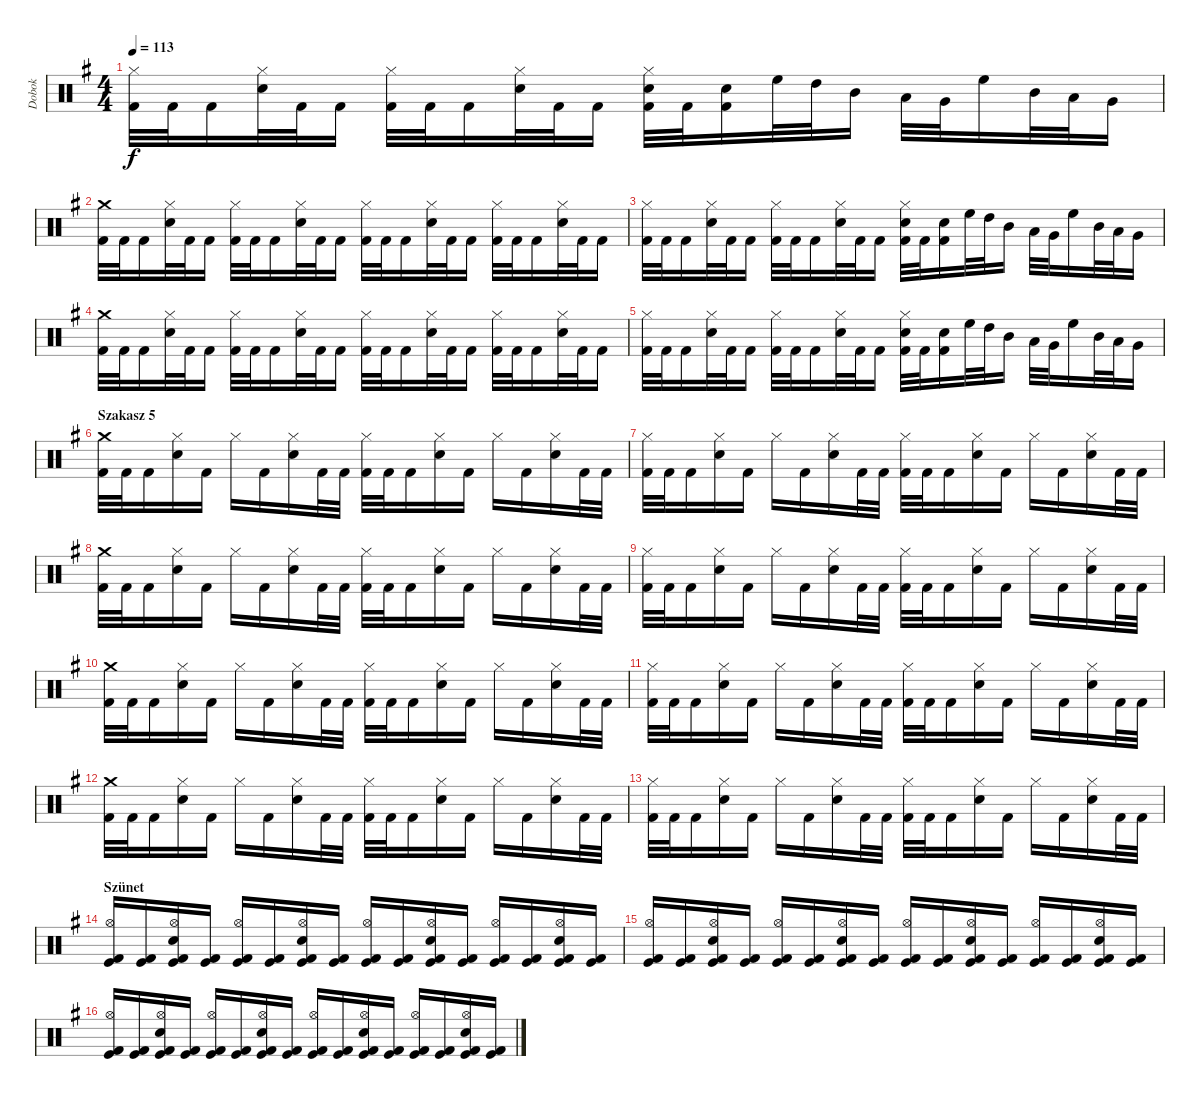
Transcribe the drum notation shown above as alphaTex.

\track ("Dobok" "Dobok") {instrument percussion}
\staff {score}
\articulation defaults
\ts (4 4)
\tempo 113
\clef neutral
\ks g
("Hi-Hat (closed)" "Kick (hit) 2").32{dy f} "Kick (hit) 2".32 "Kick (hit) 2".16 ("Hi-Hat (closed)" "Snare (hit) 2").32 "Kick (hit) 2".32 "Kick (hit) 2".16 ("Hi-Hat (closed)" "Kick (hit) 2").32 "Kick (hit) 2".32 "Kick (hit) 2".16 ("Hi-Hat (closed)" "Snare (hit) 2").32 "Kick (hit) 2".32 "Kick (hit) 2".16 ("Hi-Hat (closed)" "Snare (hit) 2" "Kick (hit) 2").32 "Kick (hit) 2".32 ("Snare (hit) 2" "Kick (hit) 2").16 "High Floor Tom (hit)".32 "High Tom (hit)".32 "Mid Tom (hit)".16 "Low Tom (hit)".32 "Very Low Tom (hit)".32 "High Floor Tom (hit)".16 "Mid Tom (hit)".32 "Low Tom (hit)".32 "Very Low Tom (hit)".16 |
("Crash medium (hit)" "Kick (hit) 2").32 "Kick (hit) 2".32 "Kick (hit) 2".16 ("Hi-Hat (closed)" "Snare (hit) 2").32 "Kick (hit) 2".32 "Kick (hit) 2".16 ("Hi-Hat (closed)" "Kick (hit) 2").32 "Kick (hit) 2".32 "Kick (hit) 2".16 ("Hi-Hat (closed)" "Snare (hit) 2").32 "Kick (hit) 2".32 "Kick (hit) 2".16 ("Hi-Hat (closed)" "Kick (hit) 2").32 "Kick (hit) 2".32 "Kick (hit) 2".16 ("Hi-Hat (closed)" "Snare (hit) 2").32 "Kick (hit) 2".32 "Kick (hit) 2".16 ("Hi-Hat (closed)" "Kick (hit) 2").32 "Kick (hit) 2".32 "Kick (hit) 2".16 ("Hi-Hat (closed)" "Snare (hit) 2").32 "Kick (hit) 2".32 "Kick (hit) 2".16 |
("Hi-Hat (closed)" "Kick (hit) 2").32 "Kick (hit) 2".32 "Kick (hit) 2".16 ("Hi-Hat (closed)" "Snare (hit) 2").32 "Kick (hit) 2".32 "Kick (hit) 2".16 ("Hi-Hat (closed)" "Kick (hit) 2").32 "Kick (hit) 2".32 "Kick (hit) 2".16 ("Hi-Hat (closed)" "Snare (hit) 2").32 "Kick (hit) 2".32 "Kick (hit) 2".16 ("Hi-Hat (closed)" "Snare (hit) 2" "Kick (hit) 2").32 "Kick (hit) 2".32 ("Snare (hit) 2" "Kick (hit) 2").16 "High Floor Tom (hit)".32 "High Tom (hit)".32 "Mid Tom (hit)".16 "Low Tom (hit)".32 "Very Low Tom (hit)".32 "High Floor Tom (hit)".16 "Mid Tom (hit)".32 "Low Tom (hit)".32 "Very Low Tom (hit)".16 |
("Crash medium (hit)" "Kick (hit) 2").32 "Kick (hit) 2".32 "Kick (hit) 2".16 ("Hi-Hat (closed)" "Snare (hit) 2").32 "Kick (hit) 2".32 "Kick (hit) 2".16 ("Hi-Hat (closed)" "Kick (hit) 2").32 "Kick (hit) 2".32 "Kick (hit) 2".16 ("Hi-Hat (closed)" "Snare (hit) 2").32 "Kick (hit) 2".32 "Kick (hit) 2".16 ("Hi-Hat (closed)" "Kick (hit) 2").32 "Kick (hit) 2".32 "Kick (hit) 2".16 ("Hi-Hat (closed)" "Snare (hit) 2").32 "Kick (hit) 2".32 "Kick (hit) 2".16 ("Hi-Hat (closed)" "Kick (hit) 2").32 "Kick (hit) 2".32 "Kick (hit) 2".16 ("Hi-Hat (closed)" "Snare (hit) 2").32 "Kick (hit) 2".32 "Kick (hit) 2".16 |
("Hi-Hat (closed)" "Kick (hit) 2").32 "Kick (hit) 2".32 "Kick (hit) 2".16 ("Hi-Hat (closed)" "Snare (hit) 2").32 "Kick (hit) 2".32 "Kick (hit) 2".16 ("Hi-Hat (closed)" "Kick (hit) 2").32 "Kick (hit) 2".32 "Kick (hit) 2".16 ("Hi-Hat (closed)" "Snare (hit) 2").32 "Kick (hit) 2".32 "Kick (hit) 2".16 ("Hi-Hat (closed)" "Snare (hit) 2" "Kick (hit) 2").32 "Kick (hit) 2".32 ("Snare (hit) 2" "Kick (hit) 2").16 "High Floor Tom (hit)".32 "High Tom (hit)".32 "Mid Tom (hit)".16 "Low Tom (hit)".32 "Very Low Tom (hit)".32 "High Floor Tom (hit)".16 "Mid Tom (hit)".32 "Low Tom (hit)".32 "Very Low Tom (hit)".16 |
\section ("" "Szakasz 5")
("Crash medium (hit)" "Kick (hit) 2").32 "Kick (hit) 2".32 "Kick (hit) 2".16 ("Hi-Hat (closed)" "Snare (hit) 2").16 "Kick (hit) 2".16 "Hi-Hat (closed)".16 "Kick (hit) 2".16 ("Hi-Hat (closed)" "Snare (hit) 2").16 "Kick (hit) 2".32 "Kick (hit) 2".32 ("Hi-Hat (closed)" "Kick (hit) 2").32 "Kick (hit) 2".32 "Kick (hit) 2".16 ("Hi-Hat (closed)" "Snare (hit) 2").16 "Kick (hit) 2".16 "Hi-Hat (closed)".16 "Kick (hit) 2".16 ("Hi-Hat (closed)" "Snare (hit) 2").16 "Kick (hit) 2".32 "Kick (hit) 2".32 |
("Hi-Hat (closed)" "Kick (hit) 2").32 "Kick (hit) 2".32 "Kick (hit) 2".16 ("Hi-Hat (closed)" "Snare (hit) 2").16 "Kick (hit) 2".16 "Hi-Hat (closed)".16 "Kick (hit) 2".16 ("Hi-Hat (closed)" "Snare (hit) 2").16 "Kick (hit) 2".32 "Kick (hit) 2".32 ("Hi-Hat (closed)" "Kick (hit) 2").32 "Kick (hit) 2".32 "Kick (hit) 2".16 ("Hi-Hat (closed)" "Snare (hit) 2").16 "Kick (hit) 2".16 "Hi-Hat (closed)".16 "Kick (hit) 2".16 ("Hi-Hat (closed)" "Snare (hit) 2").16 "Kick (hit) 2".32 "Kick (hit) 2".32 |
("Crash medium (hit)" "Kick (hit) 2").32 "Kick (hit) 2".32 "Kick (hit) 2".16 ("Hi-Hat (closed)" "Snare (hit) 2").16 "Kick (hit) 2".16 "Hi-Hat (closed)".16 "Kick (hit) 2".16 ("Hi-Hat (closed)" "Snare (hit) 2").16 "Kick (hit) 2".32 "Kick (hit) 2".32 ("Hi-Hat (closed)" "Kick (hit) 2").32 "Kick (hit) 2".32 "Kick (hit) 2".16 ("Hi-Hat (closed)" "Snare (hit) 2").16 "Kick (hit) 2".16 "Hi-Hat (closed)".16 "Kick (hit) 2".16 ("Hi-Hat (closed)" "Snare (hit) 2").16 "Kick (hit) 2".32 "Kick (hit) 2".32 |
("Hi-Hat (closed)" "Kick (hit) 2").32 "Kick (hit) 2".32 "Kick (hit) 2".16 ("Hi-Hat (closed)" "Snare (hit) 2").16 "Kick (hit) 2".16 "Hi-Hat (closed)".16 "Kick (hit) 2".16 ("Hi-Hat (closed)" "Snare (hit) 2").16 "Kick (hit) 2".32 "Kick (hit) 2".32 ("Hi-Hat (closed)" "Kick (hit) 2").32 "Kick (hit) 2".32 "Kick (hit) 2".16 ("Hi-Hat (closed)" "Snare (hit) 2").16 "Kick (hit) 2".16 "Hi-Hat (closed)".16 "Kick (hit) 2".16 ("Hi-Hat (closed)" "Snare (hit) 2").16 "Kick (hit) 2".32 "Kick (hit) 2".32 |
("Crash medium (hit)" "Kick (hit) 2").32 "Kick (hit) 2".32 "Kick (hit) 2".16 ("Hi-Hat (closed)" "Snare (hit) 2").16 "Kick (hit) 2".16 "Hi-Hat (closed)".16 "Kick (hit) 2".16 ("Hi-Hat (closed)" "Snare (hit) 2").16 "Kick (hit) 2".32 "Kick (hit) 2".32 ("Hi-Hat (closed)" "Kick (hit) 2").32 "Kick (hit) 2".32 "Kick (hit) 2".16 ("Hi-Hat (closed)" "Snare (hit) 2").16 "Kick (hit) 2".16 "Hi-Hat (closed)".16 "Kick (hit) 2".16 ("Hi-Hat (closed)" "Snare (hit) 2").16 "Kick (hit) 2".32 "Kick (hit) 2".32 |
("Hi-Hat (closed)" "Kick (hit) 2").32 "Kick (hit) 2".32 "Kick (hit) 2".16 ("Hi-Hat (closed)" "Snare (hit) 2").16 "Kick (hit) 2".16 "Hi-Hat (closed)".16 "Kick (hit) 2".16 ("Hi-Hat (closed)" "Snare (hit) 2").16 "Kick (hit) 2".32 "Kick (hit) 2".32 ("Hi-Hat (closed)" "Kick (hit) 2").32 "Kick (hit) 2".32 "Kick (hit) 2".16 ("Hi-Hat (closed)" "Snare (hit) 2").16 "Kick (hit) 2".16 "Hi-Hat (closed)".16 "Kick (hit) 2".16 ("Hi-Hat (closed)" "Snare (hit) 2").16 "Kick (hit) 2".32 "Kick (hit) 2".32 |
("Crash medium (hit)" "Kick (hit) 2").32 "Kick (hit) 2".32 "Kick (hit) 2".16 ("Hi-Hat (closed)" "Snare (hit) 2").16 "Kick (hit) 2".16 "Hi-Hat (closed)".16 "Kick (hit) 2".16 ("Hi-Hat (closed)" "Snare (hit) 2").16 "Kick (hit) 2".32 "Kick (hit) 2".32 ("Hi-Hat (closed)" "Kick (hit) 2").32 "Kick (hit) 2".32 "Kick (hit) 2".16 ("Hi-Hat (closed)" "Snare (hit) 2").16 "Kick (hit) 2".16 "Hi-Hat (closed)".16 "Kick (hit) 2".16 ("Hi-Hat (closed)" "Snare (hit) 2").16 "Kick (hit) 2".32 "Kick (hit) 2".32 |
("Hi-Hat (closed)" "Kick (hit) 2").32 "Kick (hit) 2".32 "Kick (hit) 2".16 ("Hi-Hat (closed)" "Snare (hit) 2").16 "Kick (hit) 2".16 "Hi-Hat (closed)".16 "Kick (hit) 2".16 ("Hi-Hat (closed)" "Snare (hit) 2").16 "Kick (hit) 2".32 "Kick (hit) 2".32 ("Hi-Hat (closed)" "Kick (hit) 2").32 "Kick (hit) 2".32 "Kick (hit) 2".16 ("Hi-Hat (closed)" "Snare (hit) 2").16 "Kick (hit) 2".16 "Hi-Hat (closed)".16 "Kick (hit) 2".16 ("Hi-Hat (closed)" "Snare (hit) 2").16 "Kick (hit) 2".32 "Kick (hit) 2".32 |
\section ("" "Szünet")
("Hi-Hat (open)" "Kick (hit) 2" "Kick (hit)").16 ("Kick (hit) 2" "Kick (hit)").16 ("Hi-Hat (open)" "Snare (hit) 2" "Kick (hit) 2" "Kick (hit)").16 ("Kick (hit) 2" "Kick (hit)").16 ("Hi-Hat (open)" "Kick (hit) 2" "Kick (hit)").16 ("Kick (hit) 2" "Kick (hit)").16 ("Hi-Hat (open)" "Snare (hit) 2" "Kick (hit) 2" "Kick (hit)").16 ("Kick (hit) 2" "Kick (hit)").16 ("Hi-Hat (open)" "Kick (hit) 2" "Kick (hit)").16 ("Kick (hit) 2" "Kick (hit)").16 ("Hi-Hat (open)" "Snare (hit) 2" "Kick (hit) 2" "Kick (hit)").16 ("Kick (hit) 2" "Kick (hit)").16 ("Hi-Hat (open)" "Kick (hit) 2" "Kick (hit)").16 ("Kick (hit) 2" "Kick (hit)").16 ("Hi-Hat (open)" "Snare (hit) 2" "Kick (hit) 2" "Kick (hit)").16 ("Kick (hit) 2" "Kick (hit)").16 |
("Hi-Hat (open)" "Kick (hit) 2" "Kick (hit)").16 ("Kick (hit) 2" "Kick (hit)").16 ("Hi-Hat (open)" "Snare (hit) 2" "Kick (hit) 2" "Kick (hit)").16 ("Kick (hit) 2" "Kick (hit)").16 ("Hi-Hat (open)" "Kick (hit) 2" "Kick (hit)").16 ("Kick (hit) 2" "Kick (hit)").16 ("Hi-Hat (open)" "Snare (hit) 2" "Kick (hit) 2" "Kick (hit)").16 ("Kick (hit) 2" "Kick (hit)").16 ("Hi-Hat (open)" "Kick (hit) 2" "Kick (hit)").16 ("Kick (hit) 2" "Kick (hit)").16 ("Hi-Hat (open)" "Snare (hit) 2" "Kick (hit) 2" "Kick (hit)").16 ("Kick (hit) 2" "Kick (hit)").16 ("Hi-Hat (open)" "Kick (hit) 2" "Kick (hit)").16 ("Kick (hit) 2" "Kick (hit)").16 ("Hi-Hat (open)" "Snare (hit) 2" "Kick (hit) 2" "Kick (hit)").16 ("Kick (hit) 2" "Kick (hit)").16 |
("Hi-Hat (open)" "Kick (hit) 2" "Kick (hit)").16 ("Kick (hit) 2" "Kick (hit)").16 ("Hi-Hat (open)" "Snare (hit) 2" "Kick (hit) 2" "Kick (hit)").16 ("Kick (hit) 2" "Kick (hit)").16 ("Hi-Hat (open)" "Kick (hit) 2" "Kick (hit)").16 ("Kick (hit) 2" "Kick (hit)").16 ("Hi-Hat (open)" "Snare (hit) 2" "Kick (hit) 2" "Kick (hit)").16 ("Kick (hit) 2" "Kick (hit)").16 ("Hi-Hat (open)" "Kick (hit) 2" "Kick (hit)").16 ("Kick (hit) 2" "Kick (hit)").16 ("Hi-Hat (open)" "Snare (hit) 2" "Kick (hit) 2" "Kick (hit)").16 ("Kick (hit) 2" "Kick (hit)").16 ("Hi-Hat (open)" "Kick (hit) 2" "Kick (hit)").16 ("Kick (hit) 2" "Kick (hit)").16 ("Hi-Hat (open)" "Snare (hit) 2" "Kick (hit) 2" "Kick (hit)").16 ("Kick (hit) 2" "Kick (hit)").16
